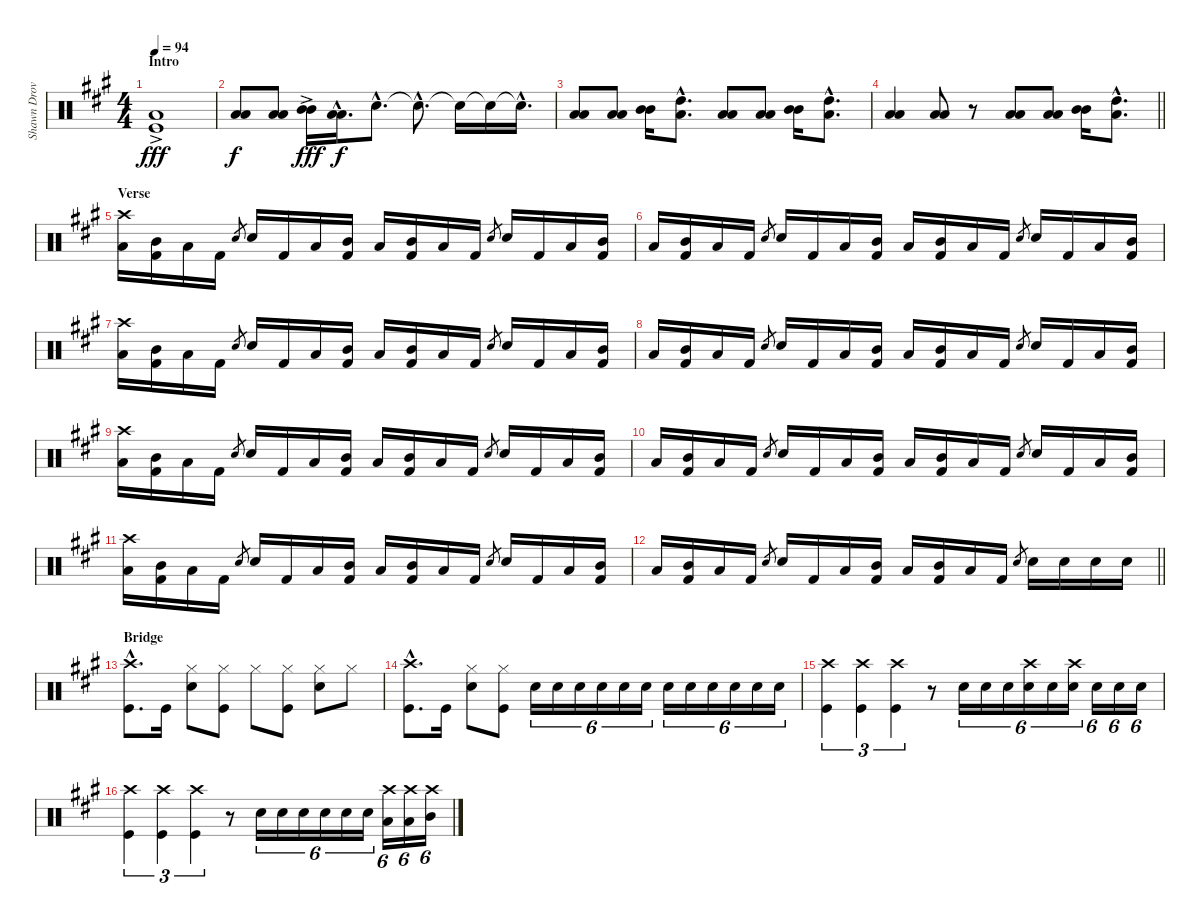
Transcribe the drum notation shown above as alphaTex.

\track ("Shawn Drover" "Shawn Drov") {instrument percussion}
\staff {score}
\articulation defaults
\ts (4 4)
\section ("" "Intro")
\tempo 94
\clef neutral
\ks a
("Low Tom (hit)"{ac} "Kick (hit)").1{dy fff} |
("Low Tom (hit)" "Low Tom (hit)").8{dy f} ("Low Tom (hit)" "Low Tom (hit)").8 ("Mid Tom (hit)"{ac} "Mid Tom (hit)").16{dy fff} ("Low Tom (hit)"{hac} "Low Tom (hit)"{hac}).16{d dy f} "Snare (hit)"{hac}.8{d} "Snare (hit)"{hac t}.8{d} "Snare (hit)"{t}.16 "Snare (hit)"{t}.16 "Snare (hit)"{hac t}.16{d} |
("Low Tom (hit)" "Low Tom (hit)").8 ("Low Tom (hit)" "Low Tom (hit)").8 ("Mid Tom (hit)" "Mid Tom (hit)").16 ("Low Tom (hit)"{hac} "High Tom (hit)"{hac}).8{d} ("Low Tom (hit)" "Low Tom (hit)").8 ("Low Tom (hit)" "Low Tom (hit)").8 ("Mid Tom (hit)" "Mid Tom (hit)").16 ("Low Tom (hit)"{hac} "High Tom (hit)"{hac}).8{d} |
\barLineRight lightlight
("Low Tom (hit)" "Low Tom (hit)").4 ("Low Tom (hit)" "Low Tom (hit)").8 r.8 ("Low Tom (hit)" "Low Tom (hit)").8 ("Low Tom (hit)" "Low Tom (hit)").8 ("Mid Tom (hit)" "Mid Tom (hit)").16 ("Low Tom (hit)"{hac} "High Tom (hit)"{hac}).8{d} |
\section ("" "Verse")
("Crash high (hit)" "Low Tom (hit)").16 ("Kick (hit) 2" "Mid Tom (hit)").16 "Low Tom (hit)".16 "Kick (hit) 2".16 "Snare (hit) 2".8{gr} "Snare (hit) 2".16 "Kick (hit) 2".16 "Low Tom (hit)".16 ("Kick (hit) 2" "Mid Tom (hit)").16 "Low Tom (hit)".16 ("Kick (hit) 2" "Mid Tom (hit)").16 "Low Tom (hit)".16 "Kick (hit) 2".16 "Snare (hit) 2".8{gr} "Snare (hit) 2".16 "Kick (hit) 2".16 "Low Tom (hit)".16 ("Kick (hit) 2" "Mid Tom (hit)").16 |
"Low Tom (hit)".16 ("Kick (hit) 2" "Mid Tom (hit)").16 "Low Tom (hit)".16 "Kick (hit) 2".16 "Snare (hit) 2".8{gr} "Snare (hit) 2".16 "Kick (hit) 2".16 "Low Tom (hit)".16 ("Kick (hit) 2" "Mid Tom (hit)").16 "Low Tom (hit)".16 ("Kick (hit) 2" "Mid Tom (hit)").16 "Low Tom (hit)".16 "Kick (hit) 2".16 "Snare (hit) 2".8{gr} "Snare (hit) 2".16 "Kick (hit) 2".16 "Low Tom (hit)".16 ("Kick (hit) 2" "Mid Tom (hit)").16 |
("Crash high (hit)" "Low Tom (hit)").16 ("Kick (hit) 2" "Mid Tom (hit)").16 "Low Tom (hit)".16 "Kick (hit) 2".16 "Snare (hit) 2".8{gr} "Snare (hit) 2".16 "Kick (hit) 2".16 "Low Tom (hit)".16 ("Kick (hit) 2" "Mid Tom (hit)").16 "Low Tom (hit)".16 ("Kick (hit) 2" "Mid Tom (hit)").16 "Low Tom (hit)".16 "Kick (hit) 2".16 "Snare (hit) 2".8{gr} "Snare (hit) 2".16 "Kick (hit) 2".16 "Low Tom (hit)".16 ("Kick (hit) 2" "Mid Tom (hit)").16 |
"Low Tom (hit)".16 ("Kick (hit) 2" "Mid Tom (hit)").16 "Low Tom (hit)".16 "Kick (hit) 2".16 "Snare (hit) 2".8{gr} "Snare (hit) 2".16 "Kick (hit) 2".16 "Low Tom (hit)".16 ("Kick (hit) 2" "Mid Tom (hit)").16 "Low Tom (hit)".16 ("Kick (hit) 2" "Mid Tom (hit)").16 "Low Tom (hit)".16 "Kick (hit) 2".16 "Snare (hit) 2".8{gr} "Snare (hit) 2".16 "Kick (hit) 2".16 "Low Tom (hit)".16 ("Kick (hit) 2" "Mid Tom (hit)").16 |
("Crash high (hit)" "Low Tom (hit)").16 ("Kick (hit) 2" "Mid Tom (hit)").16 "Low Tom (hit)".16 "Kick (hit) 2".16 "Snare (hit) 2".8{gr} "Snare (hit) 2".16 "Kick (hit) 2".16 "Low Tom (hit)".16 ("Kick (hit) 2" "Mid Tom (hit)").16 "Low Tom (hit)".16 ("Kick (hit) 2" "Mid Tom (hit)").16 "Low Tom (hit)".16 "Kick (hit) 2".16 "Snare (hit) 2".8{gr} "Snare (hit) 2".16 "Kick (hit) 2".16 "Low Tom (hit)".16 ("Kick (hit) 2" "Mid Tom (hit)").16 |
"Low Tom (hit)".16 ("Kick (hit) 2" "Mid Tom (hit)").16 "Low Tom (hit)".16 "Kick (hit) 2".16 "Snare (hit) 2".8{gr} "Snare (hit) 2".16 "Kick (hit) 2".16 "Low Tom (hit)".16 ("Kick (hit) 2" "Mid Tom (hit)").16 "Low Tom (hit)".16 ("Kick (hit) 2" "Mid Tom (hit)").16 "Low Tom (hit)".16 "Kick (hit) 2".16 "Snare (hit) 2".8{gr} "Snare (hit) 2".16 "Kick (hit) 2".16 "Low Tom (hit)".16 ("Kick (hit) 2" "Mid Tom (hit)").16 |
("Crash high (hit)" "Low Tom (hit)").16 ("Kick (hit) 2" "Mid Tom (hit)").16 "Low Tom (hit)".16 "Kick (hit) 2".16 "Snare (hit) 2".8{gr} "Snare (hit) 2".16 "Kick (hit) 2".16 "Low Tom (hit)".16 ("Kick (hit) 2" "Mid Tom (hit)").16 "Low Tom (hit)".16 ("Kick (hit) 2" "Mid Tom (hit)").16 "Low Tom (hit)".16 "Kick (hit) 2".16 "Snare (hit) 2".8{gr} "Snare (hit) 2".16 "Kick (hit) 2".16 "Low Tom (hit)".16 ("Kick (hit) 2" "Mid Tom (hit)").16 |
\barLineRight lightlight "Low Tom (hit)".16
("Kick (hit) 2" "Mid Tom (hit)").16 "Low Tom (hit)".16 "Kick (hit) 2".16 "Snare (hit) 2".8{gr} "Snare (hit) 2".16 "Kick (hit) 2".16 "Low Tom (hit)".16 ("Kick (hit) 2" "Mid Tom (hit)").16 "Low Tom (hit)".16 ("Kick (hit) 2" "Mid Tom (hit)").16 "Low Tom (hit)".16 "Kick (hit) 2".16 "Snare (hit) 2".8{gr} "Snare (hit) 2".16 "Snare (hit) 2".16 "Snare (hit) 2".16 "Snare (hit) 2".16 |
\section ("" "Bridge")
("Kick (hit)"{hac} "Crash high (hit)"{hac}).8{d} "Kick (hit)".16 ("Hi-Hat (closed)" "Snare (hit) 2").8 ("Kick (hit)" "Hi-Hat (closed)").8 "Hi-Hat (closed)".8 ("Kick (hit)" "Hi-Hat (closed)").8 ("Hi-Hat (closed)" "Snare (hit) 2").8 "Hi-Hat (closed)".8 |
("Kick (hit)"{hac} "Crash high (hit)"{hac}).8{d} "Kick (hit)".16 ("Hi-Hat (closed)" "Snare (hit) 2").8 ("Kick (hit)" "Hi-Hat (closed)").8 "Snare (hit) 2".16{tu (6 4)} "Snare (hit) 2".16{tu (6 4)} "Snare (hit) 2".16{tu (6 4)} "Snare (hit) 2".16{tu (6 4)} "Snare (hit) 2".16{tu (6 4)} "Snare (hit) 2".16{tu (6 4)} "Snare (hit) 2".16{tu (6 4)} "Snare (hit) 2".16{tu (6 4)} "Snare (hit) 2".16{tu (6 4)} "Snare (hit) 2".16{tu (6 4)} "Snare (hit) 2".16{tu (6 4)} "Snare (hit) 2".16{tu (6 4)} |
("Crash high (hit)" "Kick (hit)").4{tu (3 2)} ("Crash high (hit)" "Kick (hit)").4{tu (3 2)} ("Crash high (hit)" "Kick (hit)").4{tu (3 2)} r.8 "Snare (hit) 2".16{tu (6 4)} "Snare (hit) 2".16{tu (6 4)} "Snare (hit) 2".16{tu (6 4)} ("Crash high (hit)" "Snare (hit) 2").16{tu (6 4)} "Snare (hit) 2".16{tu (6 4)} ("Crash high (hit)" "Snare (hit) 2").16{tu (6 4)} "Snare (hit) 2".16{tu (6 4)} "Snare (hit) 2".16{tu (6 4)} "Snare (hit) 2".16{tu (6 4)} |
("Crash high (hit)" "Kick (hit)").4{tu (3 2)} ("Crash high (hit)" "Kick (hit)").4{tu (3 2)} ("Crash high (hit)" "Kick (hit)").4{tu (3 2)} r.8 "Electric Snare (hit)".16{tu (6 4)} "Electric Snare (hit)".16{tu (6 4)} "Electric Snare (hit)".16{tu (6 4)} "Snare (hit) 2".16{tu (6 4)} "Snare (hit) 2".16{tu (6 4)} "Snare (hit) 2".16{tu (6 4)} ("Crash high (hit)" "Low Tom (hit)").16{tu (6 4)} ("Crash high (hit)" "Low Tom (hit)").16{tu (6 4)} ("Crash high (hit)" "Mid Tom (hit)").16{tu (6 4)}
